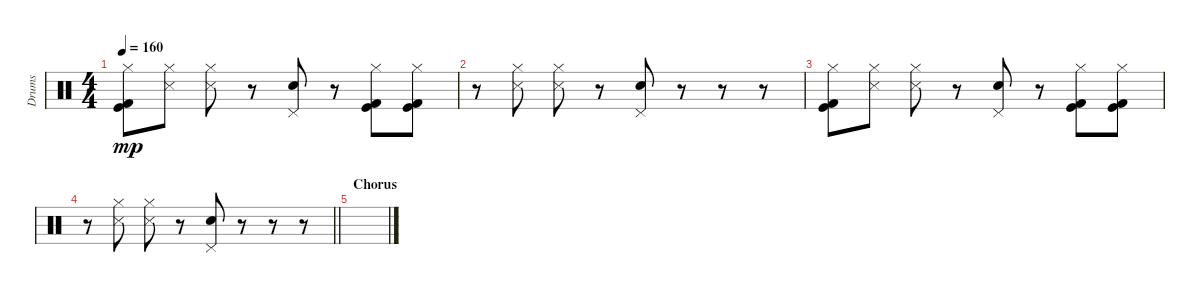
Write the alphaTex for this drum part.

\track ("Drums" "Drums") {instrument percussion}
\staff {score}
\articulation defaults
\ts (4 4)
\tempo 160
\clef neutral
\ks c
("Kick (hit)" "Kick (hit) 2" "Hi-Hat (closed)").8{dy mp} ("Metronome (hit)" "Hi-Hat (closed)").8 ("Metronome (hit)" "Hi-Hat (closed)").8 r.8 ("Pedal Hi-Hat (hit)" "Electric Snare (hit)").8 r.8 ("Kick (hit)" "Kick (hit) 2" "Hi-Hat (closed)").8 ("Kick (hit)" "Kick (hit) 2" "Hi-Hat (closed)").8 |
r.8 ("Metronome (hit)" "Hi-Hat (closed)").8 ("Metronome (hit)" "Hi-Hat (closed)").8 r.8 ("Pedal Hi-Hat (hit)" "Electric Snare (hit)").8 r.8 r.8 r.8 |
("Kick (hit)" "Kick (hit) 2" "Hi-Hat (closed)").8 ("Metronome (hit)" "Hi-Hat (closed)").8 ("Metronome (hit)" "Hi-Hat (closed)").8 r.8 ("Pedal Hi-Hat (hit)" "Electric Snare (hit)").8 r.8 ("Kick (hit)" "Kick (hit) 2" "Hi-Hat (closed)").8 ("Kick (hit)" "Kick (hit) 2" "Hi-Hat (closed)").8 |
\barLineRight lightlight
r.8 ("Metronome (hit)" "Hi-Hat (closed)").8 ("Metronome (hit)" "Hi-Hat (closed)").8 r.8 ("Pedal Hi-Hat (hit)" "Electric Snare (hit)").8 r.8 r.8 r.8 |
\section ("" "Chorus")
